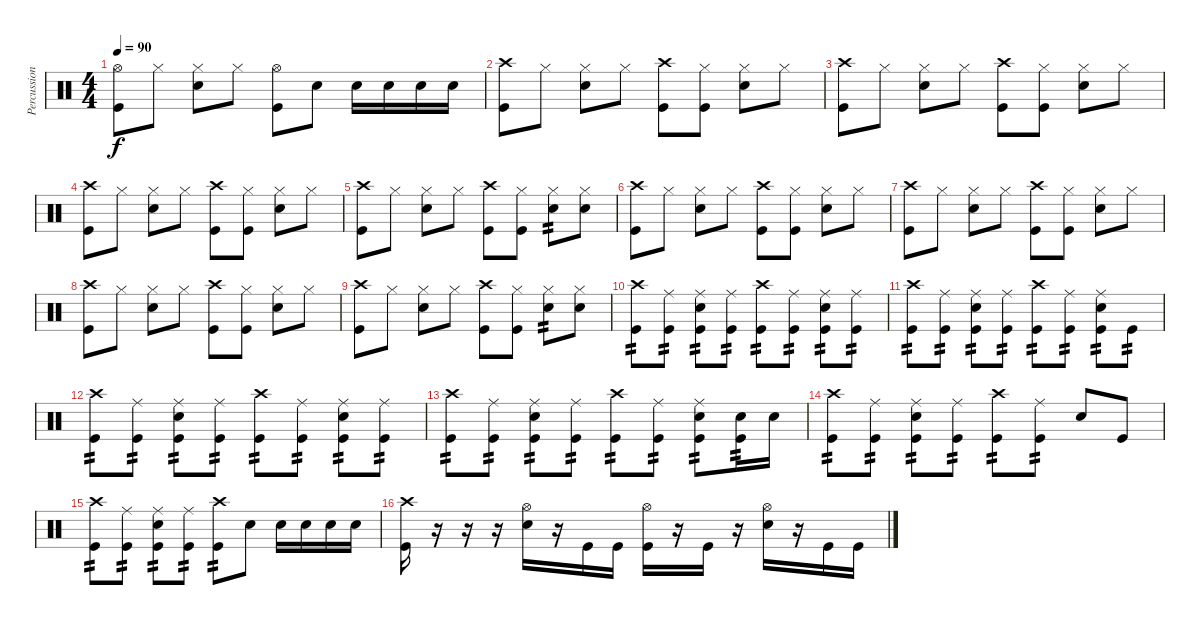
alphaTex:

\track ("Percussion" "Percussion") {instrument percussion}
\staff {score}
\articulation defaults
\ts (4 4)
\tempo 90
\clef neutral
\ks c
("Hi-Hat (open)" "Kick (hit)").8{dy f} "Hi-Hat (closed)".8 ("Hi-Hat (closed)" "Electric Snare (hit)").8 "Hi-Hat (closed)".8 ("Hi-Hat (open)" "Kick (hit)").8 "Electric Snare (hit)".8 "Electric Snare (hit)".16 "Electric Snare (hit)".16 "Electric Snare (hit)".16 "Electric Snare (hit)".16 |
("Crash high (hit)" "Kick (hit)").8 "Hi-Hat (closed)".8 ("Hi-Hat (closed)" "Electric Snare (hit)").8 "Hi-Hat (closed)".8 ("Crash high (hit)" "Kick (hit)").8 ("Hi-Hat (closed)" "Kick (hit)").8 ("Hi-Hat (closed)" "Electric Snare (hit)").8 "Hi-Hat (closed)".8 |
("Crash high (hit)" "Kick (hit)").8 "Hi-Hat (closed)".8 ("Hi-Hat (closed)" "Electric Snare (hit)").8 "Hi-Hat (closed)".8 ("Crash high (hit)" "Kick (hit)").8 ("Hi-Hat (closed)" "Kick (hit)").8 ("Hi-Hat (closed)" "Electric Snare (hit)").8 "Hi-Hat (closed)".8 |
("Crash high (hit)" "Kick (hit)").8 "Hi-Hat (closed)".8 ("Hi-Hat (closed)" "Electric Snare (hit)").8 "Hi-Hat (closed)".8 ("Crash high (hit)" "Kick (hit)").8 ("Hi-Hat (closed)" "Kick (hit)").8 ("Hi-Hat (closed)" "Electric Snare (hit)").8 "Hi-Hat (closed)".8 |
("Crash high (hit)" "Kick (hit)").8 "Hi-Hat (closed)".8 ("Hi-Hat (closed)" "Electric Snare (hit)").8 "Hi-Hat (closed)".8 ("Crash high (hit)" "Kick (hit)").8 ("Hi-Hat (closed)" "Kick (hit)").8 ("Hi-Hat (closed)" "Electric Snare (hit)").8{tp 2} ("Hi-Hat (closed)" "Electric Snare (hit)").8 |
("Crash high (hit)" "Kick (hit)").8 "Hi-Hat (closed)".8 ("Hi-Hat (closed)" "Electric Snare (hit)").8 "Hi-Hat (closed)".8 ("Crash high (hit)" "Kick (hit)").8 ("Hi-Hat (closed)" "Kick (hit)").8 ("Hi-Hat (closed)" "Electric Snare (hit)").8 "Hi-Hat (closed)".8 |
("Crash high (hit)" "Kick (hit)").8 "Hi-Hat (closed)".8 ("Hi-Hat (closed)" "Electric Snare (hit)").8 "Hi-Hat (closed)".8 ("Crash high (hit)" "Kick (hit)").8 ("Hi-Hat (closed)" "Kick (hit)").8 ("Hi-Hat (closed)" "Electric Snare (hit)").8 "Hi-Hat (closed)".8 |
("Crash high (hit)" "Kick (hit)").8 "Hi-Hat (closed)".8 ("Hi-Hat (closed)" "Electric Snare (hit)").8 "Hi-Hat (closed)".8 ("Crash high (hit)" "Kick (hit)").8 ("Hi-Hat (closed)" "Kick (hit)").8 ("Hi-Hat (closed)" "Electric Snare (hit)").8 "Hi-Hat (closed)".8 |
("Crash high (hit)" "Kick (hit)").8 "Hi-Hat (closed)".8 ("Hi-Hat (closed)" "Electric Snare (hit)").8 "Hi-Hat (closed)".8 ("Crash high (hit)" "Kick (hit)").8 ("Hi-Hat (closed)" "Kick (hit)").8 ("Hi-Hat (closed)" "Electric Snare (hit)").8{tp 2} ("Hi-Hat (closed)" "Electric Snare (hit)").8 |
("Crash high (hit)" "Kick (hit)").8{tp 2} ("Ride (middle)" "Kick (hit)").8{tp 2} ("Ride (middle)" "Kick (hit)" "Electric Snare (hit)").8{tp 2} ("Ride (middle)" "Kick (hit)").8{tp 2} ("Crash high (hit)" "Kick (hit)").8{tp 2} ("Ride (middle)" "Kick (hit)").8{tp 2} ("Ride (middle)" "Kick (hit)" "Electric Snare (hit)").8{tp 2} ("Ride (middle)" "Kick (hit)").8{tp 2} |
("Crash high (hit)" "Kick (hit)").8{tp 2} ("Ride (middle)" "Kick (hit)").8{tp 2} ("Ride (middle)" "Kick (hit)" "Electric Snare (hit)").8{tp 2} ("Ride (middle)" "Kick (hit)").8{tp 2} ("Crash high (hit)" "Kick (hit)").8{tp 2} ("Ride (middle)" "Kick (hit)").8{tp 2} ("Ride (middle)" "Kick (hit)" "Electric Snare (hit)").8{tp 2} "Kick (hit)".8{tp 2} |
("Crash high (hit)" "Kick (hit)").8{tp 2} ("Ride (middle)" "Kick (hit)").8{tp 2} ("Ride (middle)" "Kick (hit)" "Electric Snare (hit)").8{tp 2} ("Ride (middle)" "Kick (hit)").8{tp 2} ("Crash high (hit)" "Kick (hit)").8{tp 2} ("Ride (middle)" "Kick (hit)").8{tp 2} ("Ride (middle)" "Kick (hit)" "Electric Snare (hit)").8{tp 2} ("Ride (middle)" "Kick (hit)").8{tp 2} |
("Crash high (hit)" "Kick (hit)").8{tp 2} ("Ride (middle)" "Kick (hit)").8{tp 2} ("Ride (middle)" "Kick (hit)" "Electric Snare (hit)").8{tp 2} ("Ride (middle)" "Kick (hit)").8{tp 2} ("Crash high (hit)" "Kick (hit)").8{tp 2} ("Ride (middle)" "Kick (hit)").8{tp 2} ("Ride (middle)" "Kick (hit)" "Electric Snare (hit)").8{tp 2} ("Electric Snare (hit)" "Kick (hit)").16{tp 2} "Electric Snare (hit)".16 |
("Crash high (hit)" "Kick (hit)").8{tp 2} ("Ride (middle)" "Kick (hit)").8{tp 2} ("Ride (middle)" "Kick (hit)" "Electric Snare (hit)").8{tp 2} ("Ride (middle)" "Kick (hit)").8{tp 2} ("Crash high (hit)" "Kick (hit)").8{tp 2} ("Ride (middle)" "Kick (hit)").8{tp 2} "Electric Snare (hit)".8 "Kick (hit)".8 |
("Crash high (hit)" "Kick (hit)").8{tp 2} ("Ride (middle)" "Kick (hit)").8{tp 2} ("Ride (middle)" "Kick (hit)" "Electric Snare (hit)").8{tp 2} ("Ride (middle)" "Kick (hit)").8{tp 2} ("Crash high (hit)" "Kick (hit)").8{tp 2} "Electric Snare (hit)".8 "Electric Snare (hit)".16 "Electric Snare (hit)".16 "Electric Snare (hit)".16 "Electric Snare (hit)".16 |
("Crash high (hit)" "Kick (hit)").16 r.16 r.16 r.16 ("Hi-Hat (open)" "Electric Snare (hit)").16 r.16 "Kick (hit)".16 "Kick (hit)".16 ("Hi-Hat (open)" "Kick (hit)").16 r.16 "Kick (hit)".16 r.16 ("Hi-Hat (open)" "Electric Snare (hit)").16 r.16 "Kick (hit)".16 "Kick (hit)".16
